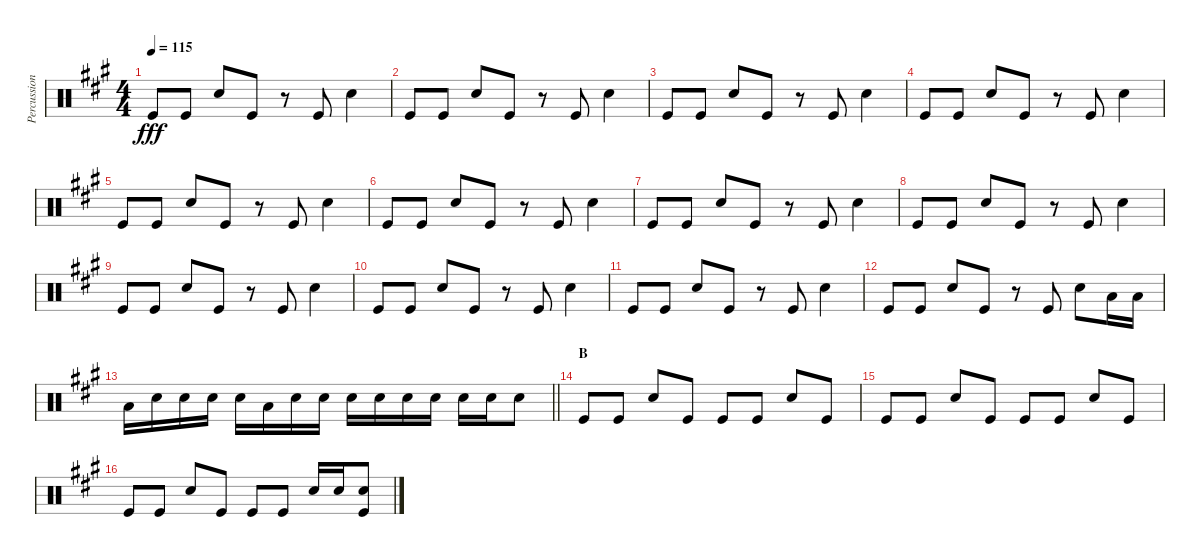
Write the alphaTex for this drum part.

\track ("Percussioni" "Percussion") {instrument percussion}
\staff {score}
\articulation defaults
\ts (4 4)
\tempo 115
\clef neutral
\ks a "Kick (hit)".8{dy fff} "Kick (hit)".8 "Snare (hit) 2".8 "Kick (hit)".8
r.8 "Kick (hit)".8 "Snare (hit) 2".4 |
"Kick (hit)".8 "Kick (hit)".8 "Snare (hit) 2".8 "Kick (hit)".8 r.8 "Kick (hit)".8 "Snare (hit) 2".4 |
"Kick (hit)".8 "Kick (hit)".8 "Snare (hit) 2".8 "Kick (hit)".8 r.8 "Kick (hit)".8 "Snare (hit) 2".4 |
"Kick (hit)".8 "Kick (hit)".8 "Snare (hit) 2".8 "Kick (hit)".8 r.8 "Kick (hit)".8 "Snare (hit) 2".4 |
"Kick (hit)".8 "Kick (hit)".8 "Snare (hit) 2".8 "Kick (hit)".8 r.8 "Kick (hit)".8 "Snare (hit) 2".4 |
"Kick (hit)".8 "Kick (hit)".8 "Snare (hit) 2".8 "Kick (hit)".8 r.8 "Kick (hit)".8 "Snare (hit) 2".4 |
"Kick (hit)".8 "Kick (hit)".8 "Snare (hit) 2".8 "Kick (hit)".8 r.8 "Kick (hit)".8 "Snare (hit) 2".4 |
"Kick (hit)".8 "Kick (hit)".8 "Snare (hit) 2".8 "Kick (hit)".8 r.8 "Kick (hit)".8 "Snare (hit) 2".4 |
"Kick (hit)".8 "Kick (hit)".8 "Snare (hit) 2".8 "Kick (hit)".8 r.8 "Kick (hit)".8 "Snare (hit) 2".4 |
"Kick (hit)".8 "Kick (hit)".8 "Snare (hit) 2".8 "Kick (hit)".8 r.8 "Kick (hit)".8 "Snare (hit) 2".4 |
"Kick (hit)".8 "Kick (hit)".8 "Snare (hit) 2".8 "Kick (hit)".8 r.8 "Kick (hit)".8 "Snare (hit) 2".4 |
"Kick (hit)".8 "Kick (hit)".8 "Snare (hit) 2".8 "Kick (hit)".8 r.8 "Kick (hit)".8 "Snare (hit) 2".8 "Low Tom (hit)".16 "Low Tom (hit)".16 |
\barLineRight lightlight "Low Tom (hit)".16 "Snare (hit) 2".16 "Snare (hit) 2".16 "Snare (hit) 2".16 "Snare (hit) 2".16 "Low Tom (hit)".16 "Snare (hit) 2".16 "Snare (hit) 2".16 "Snare (hit) 2".16 "Snare (hit) 2".16 "Snare (hit) 2".16 "Snare (hit) 2".16 "Snare (hit) 2".16 "Snare (hit) 2".16 "Snare (hit) 2".8
|
\section ("" "B")
"Kick (hit)".8 "Kick (hit)".8 "Snare (hit) 2".8 "Kick (hit)".8 "Kick (hit)".8 "Kick (hit)".8 "Snare (hit) 2".8 "Kick (hit)".8 |
"Kick (hit)".8 "Kick (hit)".8 "Snare (hit) 2".8 "Kick (hit)".8 "Kick (hit)".8 "Kick (hit)".8 "Snare (hit) 2".8 "Kick (hit)".8 |
"Kick (hit)".8 "Kick (hit)".8 "Snare (hit) 2".8 "Kick (hit)".8 "Kick (hit)".8 "Kick (hit)".8 "Snare (hit) 2".16 "Snare (hit) 2".16 ("Snare (hit) 2" "Kick (hit)").8
